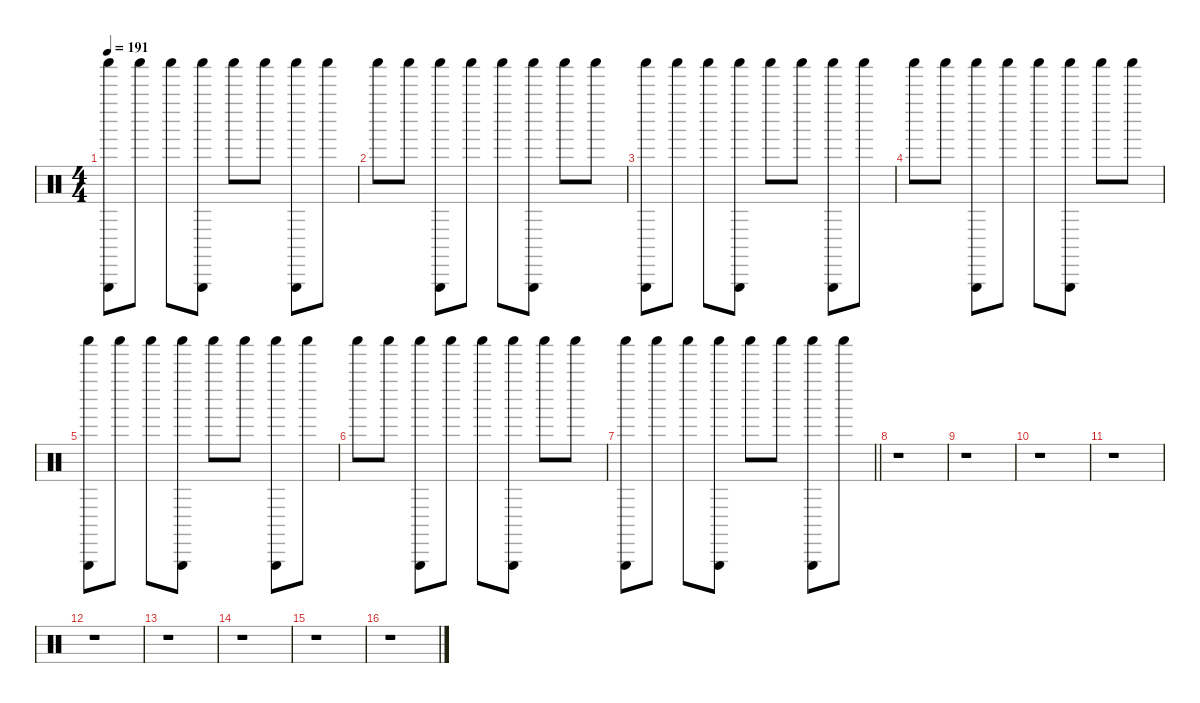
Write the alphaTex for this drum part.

\defaultSystemsLayout 4
\hideDynamics
\bracketExtendMode nobrackets
\singleTrackTrackNamePolicy hidden
\multiTrackTrackNamePolicy hidden
\firstSystemTrackNameMode fullname
\firstSystemTrackNameOrientation horizontal
\otherSystemsTrackNameOrientation horizontal
\track ("Percussion" "drm.") {instrument percussion}
\staff {score}
\articulation defaults
\ts (4 4)
\tempo 191
\clef neutral
\ks c
("Shaker (hit)" "Triangle (hit)").8{dy mp} "Shaker (hit)".8 "Shaker (hit)".8{dy fff} ("Shaker (hit)" "Triangle (hit)").8{dy mp} "Shaker (hit)".8 "Shaker (hit)".8 ("Shaker (hit)" "Triangle (hit)").8{dy fff} "Shaker (hit)".8{dy mp} |
"Shaker (hit)".8 "Shaker (hit)".8 ("Shaker (hit)" "Triangle (hit)").8{dy fff} "Shaker (hit)".8{dy mp} "Shaker (hit)".8 ("Shaker (hit)" "Triangle (hit)").8 "Shaker (hit)".8{dy fff} "Shaker (hit)".8{dy mp} |
("Shaker (hit)" "Triangle (hit)").8 "Shaker (hit)".8 "Shaker (hit)".8{dy fff} ("Shaker (hit)" "Triangle (hit)").8{dy mp} "Shaker (hit)".8 "Shaker (hit)".8 ("Shaker (hit)" "Triangle (hit)").8{dy fff} "Shaker (hit)".8{dy mp} |
"Shaker (hit)".8 "Shaker (hit)".8 ("Shaker (hit)" "Triangle (hit)").8{dy fff} "Shaker (hit)".8{dy mp} "Shaker (hit)".8 ("Shaker (hit)" "Triangle (hit)").8 "Shaker (hit)".8{dy fff} "Shaker (hit)".8{dy mp} |
("Shaker (hit)" "Triangle (hit)").8 "Shaker (hit)".8 "Shaker (hit)".8{dy fff} ("Shaker (hit)" "Triangle (hit)").8{dy mp} "Shaker (hit)".8 "Shaker (hit)".8 ("Shaker (hit)" "Triangle (hit)").8{dy fff} "Shaker (hit)".8{dy mp} |
"Shaker (hit)".8 "Shaker (hit)".8 ("Shaker (hit)" "Triangle (hit)").8{dy fff} "Shaker (hit)".8{dy mp} "Shaker (hit)".8 ("Shaker (hit)" "Triangle (hit)").8 "Shaker (hit)".8{dy fff} "Shaker (hit)".8{dy mp} |
\barLineRight lightlight
("Shaker (hit)" "Triangle (hit)").8 "Shaker (hit)".8 "Shaker (hit)".8{dy fff} ("Shaker (hit)" "Triangle (hit)").8{dy mp} "Shaker (hit)".8 "Shaker (hit)".8 ("Shaker (hit)" "Triangle (hit)").8{dy fff} "Shaker (hit)".8{dy mp} |
r.1 |
r.1 |
r.1 |
r.1 |
r.1 |
r.1 |
r.1 |
r.1 |
r.1
